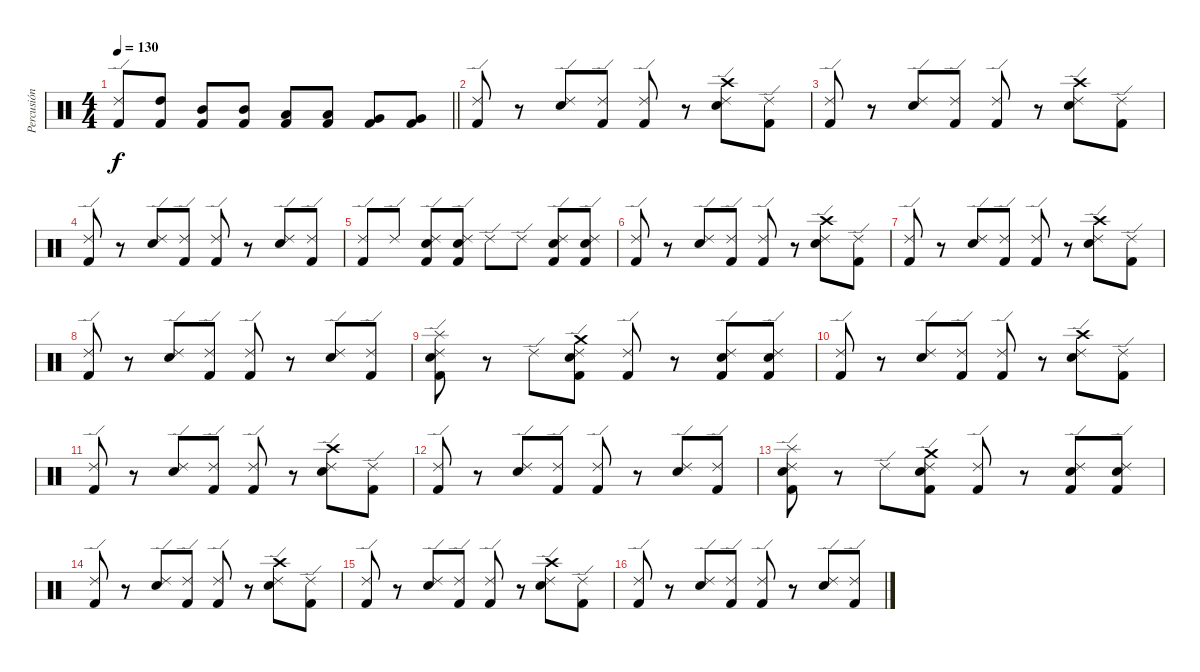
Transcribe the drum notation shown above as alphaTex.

\track ("Percusión" "Percusión") {instrument percussion}
\staff {score}
\articulation defaults
\ts (4 4)
\tempo 130
\clef neutral
\barLineRight lightlight
\ks c
("Kick (hit) 2" "Ride (edge) 2").8{dy f} ("Kick (hit) 2" "High Tom (hit)").8 ("Kick (hit) 2" "Mid Tom (hit)").8 ("Kick (hit) 2" "Mid Tom (hit)").8 ("Kick (hit) 2" "Low Tom (hit)").8 ("Kick (hit) 2" "Low Tom (hit)").8 ("Kick (hit) 2" "Very Low Tom (hit)").8 ("Kick (hit) 2" "Very Low Tom (hit)").8 |
("Kick (hit) 2" "Ride (edge) 2").8 r.8 ("Snare (hit) 2" "Ride (edge) 2").8 ("Kick (hit) 2" "Ride (edge) 2").8 ("Kick (hit) 2" "Ride (edge) 2").8 r.8 ("Snare (hit) 2" "Crash high (hit)" "Ride (edge) 2").8 ("Kick (hit) 2" "Ride (edge) 2").8 |
("Kick (hit) 2" "Ride (edge) 2").8 r.8 ("Snare (hit) 2" "Ride (edge) 2").8 ("Kick (hit) 2" "Ride (edge) 2").8 ("Kick (hit) 2" "Ride (edge) 2").8 r.8 ("Snare (hit) 2" "Crash high (hit)" "Ride (edge) 2").8 ("Kick (hit) 2" "Ride (edge) 2").8 |
("Kick (hit) 2" "Ride (edge) 2").8 r.8 ("Snare (hit) 2" "Ride (edge) 2").8 ("Kick (hit) 2" "Ride (edge) 2").8 ("Kick (hit) 2" "Ride (edge) 2").8 r.8 ("Snare (hit) 2" "Ride (edge) 2").8 ("Kick (hit) 2" "Ride (edge) 2").8 |
("Kick (hit) 2" "Ride (edge) 2").8 "Ride (edge) 2".8 ("Kick (hit) 2" "Snare (hit) 2" "Ride (edge) 2").8 ("Kick (hit) 2" "Snare (hit) 2" "Ride (edge) 2").8 "Ride (edge) 2".8 "Ride (edge) 2".8 ("Kick (hit) 2" "Snare (hit) 2" "Ride (edge) 2").8 ("Kick (hit) 2" "Snare (hit) 2" "Ride (edge) 2").8 |
("Kick (hit) 2" "Ride (edge) 2").8 r.8 ("Snare (hit) 2" "Ride (edge) 2").8 ("Kick (hit) 2" "Ride (edge) 2").8 ("Kick (hit) 2" "Ride (edge) 2").8 r.8 ("Snare (hit) 2" "Crash high (hit)" "Ride (edge) 2").8 ("Kick (hit) 2" "Ride (edge) 2").8 |
("Kick (hit) 2" "Ride (edge) 2").8 r.8 ("Snare (hit) 2" "Ride (edge) 2").8 ("Kick (hit) 2" "Ride (edge) 2").8 ("Kick (hit) 2" "Ride (edge) 2").8 r.8 ("Snare (hit) 2" "Crash high (hit)" "Ride (edge) 2").8 ("Kick (hit) 2" "Ride (edge) 2").8 |
("Kick (hit) 2" "Ride (edge) 2").8 r.8 ("Snare (hit) 2" "Ride (edge) 2").8 ("Kick (hit) 2" "Ride (edge) 2").8 ("Kick (hit) 2" "Ride (edge) 2").8 r.8 ("Snare (hit) 2" "Ride (edge) 2").8 ("Kick (hit) 2" "Ride (edge) 2").8 |
("Kick (hit) 2" "Snare (hit) 2" "Splash (hit)" "Ride (edge) 2").8 r.8 "Ride (edge) 2".8 ("Kick (hit) 2" "Snare (hit) 2" "Crash medium (hit)" "Ride (edge) 2").8 ("Kick (hit) 2" "Ride (edge) 2").8 r.8 ("Kick (hit) 2" "Snare (hit) 2" "Ride (edge) 2").8 ("Kick (hit) 2" "Snare (hit) 2" "Ride (edge) 2").8 |
("Kick (hit) 2" "Ride (edge) 2").8 r.8 ("Snare (hit) 2" "Ride (edge) 2").8 ("Kick (hit) 2" "Ride (edge) 2").8 ("Kick (hit) 2" "Ride (edge) 2").8 r.8 ("Snare (hit) 2" "Crash high (hit)" "Ride (edge) 2").8 ("Kick (hit) 2" "Ride (edge) 2").8 |
("Kick (hit) 2" "Ride (edge) 2").8 r.8 ("Snare (hit) 2" "Ride (edge) 2").8 ("Kick (hit) 2" "Ride (edge) 2").8 ("Kick (hit) 2" "Ride (edge) 2").8 r.8 ("Snare (hit) 2" "Crash high (hit)" "Ride (edge) 2").8 ("Kick (hit) 2" "Ride (edge) 2").8 |
("Kick (hit) 2" "Ride (edge) 2").8 r.8 ("Snare (hit) 2" "Ride (edge) 2").8 ("Kick (hit) 2" "Ride (edge) 2").8 ("Kick (hit) 2" "Ride (edge) 2").8 r.8 ("Snare (hit) 2" "Ride (edge) 2").8 ("Kick (hit) 2" "Ride (edge) 2").8 |
("Kick (hit) 2" "Snare (hit) 2" "Splash (hit)" "Ride (edge) 2").8 r.8 "Ride (edge) 2".8 ("Kick (hit) 2" "Snare (hit) 2" "Crash medium (hit)" "Ride (edge) 2").8 ("Kick (hit) 2" "Ride (edge) 2").8 r.8 ("Kick (hit) 2" "Snare (hit) 2" "Ride (edge) 2").8 ("Kick (hit) 2" "Snare (hit) 2" "Ride (edge) 2").8 |
("Kick (hit) 2" "Ride (edge) 2").8 r.8 ("Snare (hit) 2" "Ride (edge) 2").8 ("Kick (hit) 2" "Ride (edge) 2").8 ("Kick (hit) 2" "Ride (edge) 2").8 r.8 ("Snare (hit) 2" "Crash high (hit)" "Ride (edge) 2").8 ("Kick (hit) 2" "Ride (edge) 2").8 |
("Kick (hit) 2" "Ride (edge) 2").8 r.8 ("Snare (hit) 2" "Ride (edge) 2").8 ("Kick (hit) 2" "Ride (edge) 2").8 ("Kick (hit) 2" "Ride (edge) 2").8 r.8 ("Snare (hit) 2" "Crash high (hit)" "Ride (edge) 2").8 ("Kick (hit) 2" "Ride (edge) 2").8 |
("Kick (hit) 2" "Ride (edge) 2").8 r.8 ("Snare (hit) 2" "Ride (edge) 2").8 ("Kick (hit) 2" "Ride (edge) 2").8 ("Kick (hit) 2" "Ride (edge) 2").8 r.8 ("Snare (hit) 2" "Ride (edge) 2").8 ("Kick (hit) 2" "Ride (edge) 2").8
